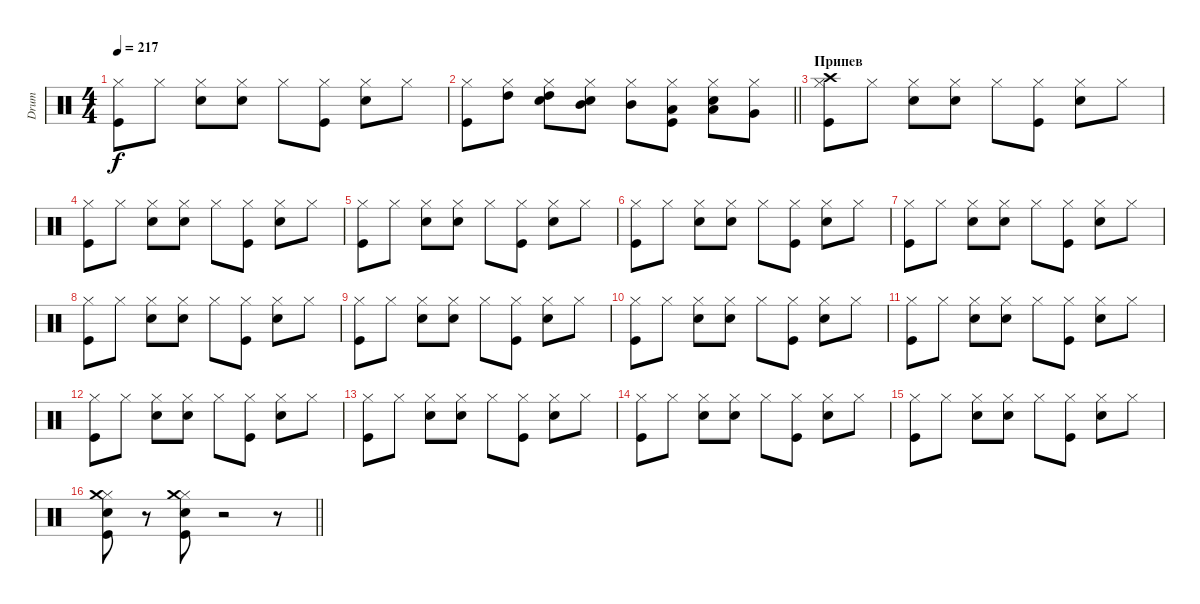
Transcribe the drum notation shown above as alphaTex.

\track ("Drum" "Drum") {instrument percussion}
\staff {score}
\articulation defaults
\ts (4 4)
\tempo 217
\clef neutral
\ks c
("Kick (hit)" "Hi-Hat (closed)").8{dy f} "Hi-Hat (closed)".8 ("Snare (hit) 2" "Hi-Hat (closed)").8 ("Snare (hit) 2" "Hi-Hat (closed)").8 "Hi-Hat (closed)".8 ("Kick (hit)" "Hi-Hat (closed)").8 ("Snare (hit) 2" "Hi-Hat (closed)").8 "Hi-Hat (closed)".8 |
\barLineRight lightlight
("Kick (hit)" "Hi-Hat (closed)").8 ("Hi-Hat (closed)" "High Tom (hit)").8 ("Snare (hit) 2" "Hi-Hat (closed)" "High Tom (hit)").8 ("Snare (hit) 2" "Hi-Hat (closed)" "Mid Tom (hit)").8 ("Hi-Hat (closed)" "Mid Tom (hit)").8 ("Kick (hit)" "Hi-Hat (closed)" "Low Tom (hit)").8 ("Snare (hit) 2" "Hi-Hat (closed)" "Low Tom (hit)").8 ("Hi-Hat (closed)" "Very Low Tom (hit)").8 |
\section ("" "Припев")
("Kick (hit)" "Hi-Hat (closed)" "Crash high (hit)").8 "Hi-Hat (closed)".8 ("Snare (hit) 2" "Hi-Hat (closed)").8 ("Snare (hit) 2" "Hi-Hat (closed)").8 "Hi-Hat (closed)".8 ("Kick (hit)" "Hi-Hat (closed)").8 ("Snare (hit) 2" "Hi-Hat (closed)").8 "Hi-Hat (closed)".8 |
("Kick (hit)" "Hi-Hat (closed)").8 "Hi-Hat (closed)".8 ("Snare (hit) 2" "Hi-Hat (closed)").8 ("Snare (hit) 2" "Hi-Hat (closed)").8 "Hi-Hat (closed)".8 ("Kick (hit)" "Hi-Hat (closed)").8 ("Snare (hit) 2" "Hi-Hat (closed)").8 "Hi-Hat (closed)".8 |
("Kick (hit)" "Hi-Hat (closed)").8 "Hi-Hat (closed)".8 ("Snare (hit) 2" "Hi-Hat (closed)").8 ("Snare (hit) 2" "Hi-Hat (closed)").8 "Hi-Hat (closed)".8 ("Kick (hit)" "Hi-Hat (closed)").8 ("Snare (hit) 2" "Hi-Hat (closed)").8 "Hi-Hat (closed)".8 |
("Kick (hit)" "Hi-Hat (closed)").8 "Hi-Hat (closed)".8 ("Snare (hit) 2" "Hi-Hat (closed)").8 ("Snare (hit) 2" "Hi-Hat (closed)").8 "Hi-Hat (closed)".8 ("Kick (hit)" "Hi-Hat (closed)").8 ("Snare (hit) 2" "Hi-Hat (closed)").8 "Hi-Hat (closed)".8 |
("Kick (hit)" "Hi-Hat (closed)").8 "Hi-Hat (closed)".8 ("Snare (hit) 2" "Hi-Hat (closed)").8 ("Snare (hit) 2" "Hi-Hat (closed)").8 "Hi-Hat (closed)".8 ("Kick (hit)" "Hi-Hat (closed)").8 ("Snare (hit) 2" "Hi-Hat (closed)").8 "Hi-Hat (closed)".8 |
("Kick (hit)" "Hi-Hat (closed)").8 "Hi-Hat (closed)".8 ("Snare (hit) 2" "Hi-Hat (closed)").8 ("Snare (hit) 2" "Hi-Hat (closed)").8 "Hi-Hat (closed)".8 ("Kick (hit)" "Hi-Hat (closed)").8 ("Snare (hit) 2" "Hi-Hat (closed)").8 "Hi-Hat (closed)".8 |
("Kick (hit)" "Hi-Hat (closed)").8 "Hi-Hat (closed)".8 ("Snare (hit) 2" "Hi-Hat (closed)").8 ("Snare (hit) 2" "Hi-Hat (closed)").8 "Hi-Hat (closed)".8 ("Kick (hit)" "Hi-Hat (closed)").8 ("Snare (hit) 2" "Hi-Hat (closed)").8 "Hi-Hat (closed)".8 |
("Kick (hit)" "Hi-Hat (closed)").8 "Hi-Hat (closed)".8 ("Snare (hit) 2" "Hi-Hat (closed)").8 ("Snare (hit) 2" "Hi-Hat (closed)").8 "Hi-Hat (closed)".8 ("Kick (hit)" "Hi-Hat (closed)").8 ("Snare (hit) 2" "Hi-Hat (closed)").8 "Hi-Hat (closed)".8 |
("Kick (hit)" "Hi-Hat (closed)").8 "Hi-Hat (closed)".8 ("Snare (hit) 2" "Hi-Hat (closed)").8 ("Snare (hit) 2" "Hi-Hat (closed)").8 "Hi-Hat (closed)".8 ("Kick (hit)" "Hi-Hat (closed)").8 ("Snare (hit) 2" "Hi-Hat (closed)").8 "Hi-Hat (closed)".8 |
("Kick (hit)" "Hi-Hat (closed)").8 "Hi-Hat (closed)".8 ("Snare (hit) 2" "Hi-Hat (closed)").8 ("Snare (hit) 2" "Hi-Hat (closed)").8 "Hi-Hat (closed)".8 ("Kick (hit)" "Hi-Hat (closed)").8 ("Snare (hit) 2" "Hi-Hat (closed)").8 "Hi-Hat (closed)".8 |
("Kick (hit)" "Hi-Hat (closed)").8 "Hi-Hat (closed)".8 ("Snare (hit) 2" "Hi-Hat (closed)").8 ("Snare (hit) 2" "Hi-Hat (closed)").8 "Hi-Hat (closed)".8 ("Kick (hit)" "Hi-Hat (closed)").8 ("Snare (hit) 2" "Hi-Hat (closed)").8 "Hi-Hat (closed)".8 |
("Kick (hit)" "Hi-Hat (closed)").8 "Hi-Hat (closed)".8 ("Snare (hit) 2" "Hi-Hat (closed)").8 ("Snare (hit) 2" "Hi-Hat (closed)").8 "Hi-Hat (closed)".8 ("Kick (hit)" "Hi-Hat (closed)").8 ("Snare (hit) 2" "Hi-Hat (closed)").8 "Hi-Hat (closed)".8 |
("Kick (hit)" "Hi-Hat (closed)").8 "Hi-Hat (closed)".8 ("Snare (hit) 2" "Hi-Hat (closed)").8 ("Snare (hit) 2" "Hi-Hat (closed)").8 "Hi-Hat (closed)".8 ("Kick (hit)" "Hi-Hat (closed)").8 ("Snare (hit) 2" "Hi-Hat (closed)").8 "Hi-Hat (closed)".8 |
\barLineRight lightlight
("Kick (hit)" "Snare (hit) 2" "Hi-Hat (closed)" "Crash medium (hit)").8 r.8 ("Kick (hit)" "Snare (hit) 2" "Hi-Hat (closed)" "Crash medium (hit)").8 r.2 r.8
